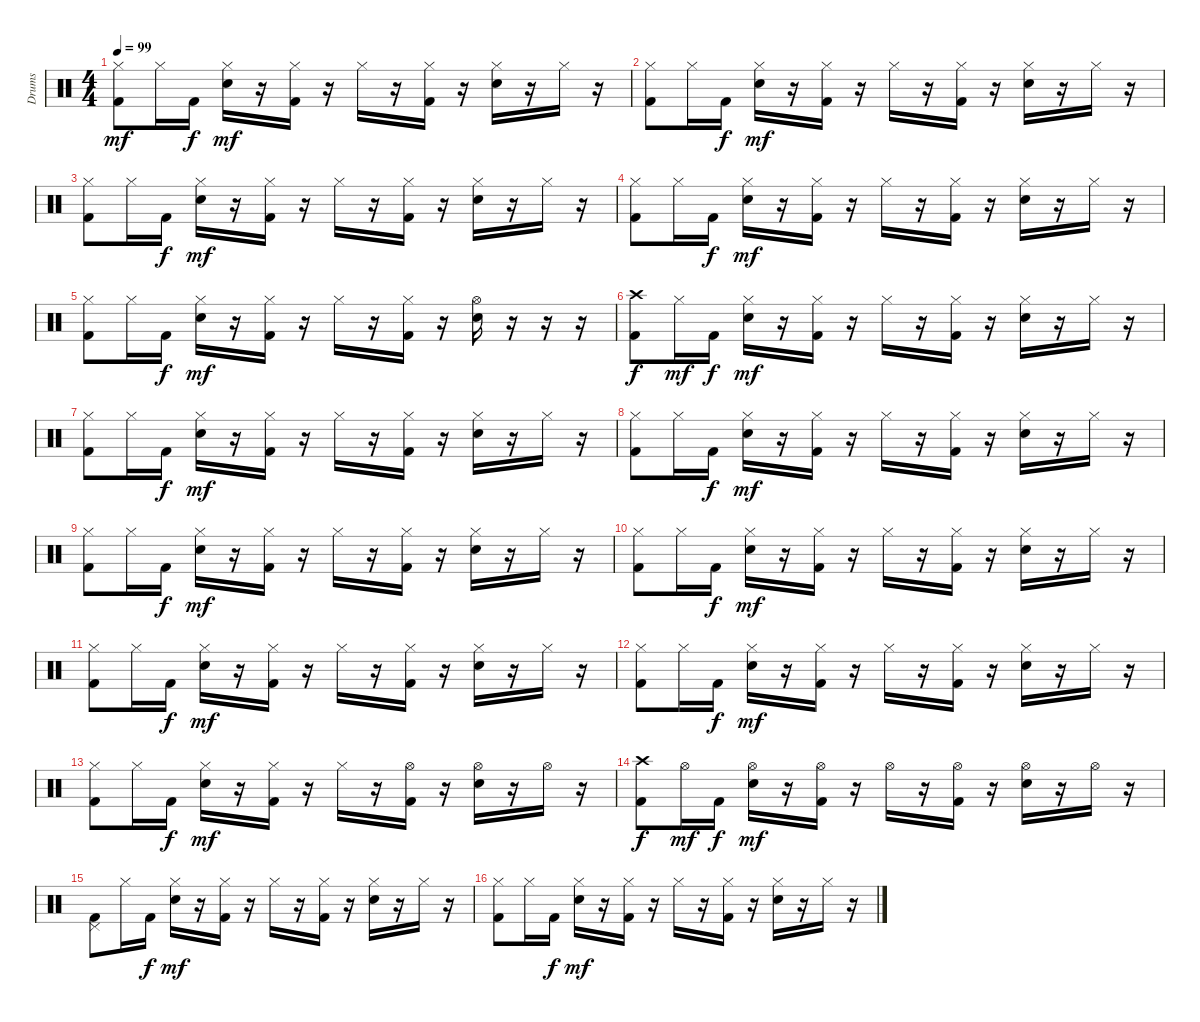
\track ("Drums" "Drums") {instrument percussion}
\staff {score}
\articulation defaults
\ts (4 4)
\tempo 99
\clef neutral
\ks c
("Hi-Hat (closed)" "Kick (hit) 2").8{dy mf} "Hi-Hat (closed)".16 "Kick (hit) 2".16{dy f} ("Hi-Hat (closed)" "Snare (hit) 2").16{dy mf} r.16 ("Hi-Hat (closed)" "Kick (hit) 2").16 r.16 "Hi-Hat (closed)".16 r.16 ("Hi-Hat (closed)" "Kick (hit) 2").16 r.16 ("Hi-Hat (closed)" "Snare (hit) 2").16 r.16 "Hi-Hat (closed)".16 r.16 |
("Hi-Hat (closed)" "Kick (hit) 2").8 "Hi-Hat (closed)".16 "Kick (hit) 2".16{dy f} ("Hi-Hat (closed)" "Snare (hit) 2").16{dy mf} r.16 ("Hi-Hat (closed)" "Kick (hit) 2").16 r.16 "Hi-Hat (closed)".16 r.16 ("Hi-Hat (closed)" "Kick (hit) 2").16 r.16 ("Hi-Hat (closed)" "Snare (hit) 2").16 r.16 "Hi-Hat (closed)".16 r.16 |
("Hi-Hat (closed)" "Kick (hit) 2").8 "Hi-Hat (closed)".16 "Kick (hit) 2".16{dy f} ("Hi-Hat (closed)" "Snare (hit) 2").16{dy mf} r.16 ("Hi-Hat (closed)" "Kick (hit) 2").16 r.16 "Hi-Hat (closed)".16 r.16 ("Hi-Hat (closed)" "Kick (hit) 2").16 r.16 ("Hi-Hat (closed)" "Snare (hit) 2").16 r.16 "Hi-Hat (closed)".16 r.16 |
("Hi-Hat (closed)" "Kick (hit) 2").8 "Hi-Hat (closed)".16 "Kick (hit) 2".16{dy f} ("Hi-Hat (closed)" "Snare (hit) 2").16{dy mf} r.16 ("Hi-Hat (closed)" "Kick (hit) 2").16 r.16 "Hi-Hat (closed)".16 r.16 ("Hi-Hat (closed)" "Kick (hit) 2").16 r.16 ("Hi-Hat (closed)" "Snare (hit) 2").16 r.16 "Hi-Hat (closed)".16 r.16 |
("Hi-Hat (closed)" "Kick (hit) 2").8 "Hi-Hat (closed)".16 "Kick (hit) 2".16{dy f} ("Hi-Hat (closed)" "Snare (hit) 2").16{dy mf} r.16 ("Hi-Hat (closed)" "Kick (hit) 2").16 r.16 "Hi-Hat (closed)".16 r.16 ("Hi-Hat (closed)" "Kick (hit) 2").16 r.16 ("Hi-Hat (open)" "Snare (hit) 2").16 r.16 r.16 r.16 |
("Crash high (hit)" "Kick (hit) 2").8{dy f} "Hi-Hat (closed)".16{dy mf} "Kick (hit) 2".16{dy f} ("Hi-Hat (closed)" "Snare (hit) 2").16{dy mf} r.16 ("Hi-Hat (closed)" "Kick (hit) 2").16 r.16 "Hi-Hat (closed)".16 r.16 ("Hi-Hat (closed)" "Kick (hit) 2").16 r.16 ("Hi-Hat (closed)" "Snare (hit) 2").16 r.16 "Hi-Hat (closed)".16 r.16 |
("Hi-Hat (closed)" "Kick (hit) 2").8 "Hi-Hat (closed)".16 "Kick (hit) 2".16{dy f} ("Hi-Hat (closed)" "Snare (hit) 2").16{dy mf} r.16 ("Hi-Hat (closed)" "Kick (hit) 2").16 r.16 "Hi-Hat (closed)".16 r.16 ("Hi-Hat (closed)" "Kick (hit) 2").16 r.16 ("Hi-Hat (closed)" "Snare (hit) 2").16 r.16 "Hi-Hat (closed)".16 r.16 |
("Hi-Hat (closed)" "Kick (hit) 2").8 "Hi-Hat (closed)".16 "Kick (hit) 2".16{dy f} ("Hi-Hat (closed)" "Snare (hit) 2").16{dy mf} r.16 ("Hi-Hat (closed)" "Kick (hit) 2").16 r.16 "Hi-Hat (closed)".16 r.16 ("Hi-Hat (closed)" "Kick (hit) 2").16 r.16 ("Hi-Hat (closed)" "Snare (hit) 2").16 r.16 "Hi-Hat (closed)".16 r.16 |
("Hi-Hat (closed)" "Kick (hit) 2").8 "Hi-Hat (closed)".16 "Kick (hit) 2".16{dy f} ("Hi-Hat (closed)" "Snare (hit) 2").16{dy mf} r.16 ("Hi-Hat (closed)" "Kick (hit) 2").16 r.16 "Hi-Hat (closed)".16 r.16 ("Hi-Hat (closed)" "Kick (hit) 2").16 r.16 ("Hi-Hat (closed)" "Snare (hit) 2").16 r.16 "Hi-Hat (closed)".16 r.16 |
("Hi-Hat (closed)" "Kick (hit) 2").8 "Hi-Hat (closed)".16 "Kick (hit) 2".16{dy f} ("Hi-Hat (closed)" "Snare (hit) 2").16{dy mf} r.16 ("Hi-Hat (closed)" "Kick (hit) 2").16 r.16 "Hi-Hat (closed)".16 r.16 ("Hi-Hat (closed)" "Kick (hit) 2").16 r.16 ("Hi-Hat (closed)" "Snare (hit) 2").16 r.16 "Hi-Hat (closed)".16 r.16 |
("Hi-Hat (closed)" "Kick (hit) 2").8 "Hi-Hat (closed)".16 "Kick (hit) 2".16{dy f} ("Hi-Hat (closed)" "Snare (hit) 2").16{dy mf} r.16 ("Hi-Hat (closed)" "Kick (hit) 2").16 r.16 "Hi-Hat (closed)".16 r.16 ("Hi-Hat (closed)" "Kick (hit) 2").16 r.16 ("Hi-Hat (closed)" "Snare (hit) 2").16 r.16 "Hi-Hat (closed)".16 r.16 |
("Hi-Hat (closed)" "Kick (hit) 2").8 "Hi-Hat (closed)".16 "Kick (hit) 2".16{dy f} ("Hi-Hat (closed)" "Snare (hit) 2").16{dy mf} r.16 ("Hi-Hat (closed)" "Kick (hit) 2").16 r.16 "Hi-Hat (closed)".16 r.16 ("Hi-Hat (closed)" "Kick (hit) 2").16 r.16 ("Hi-Hat (closed)" "Snare (hit) 2").16 r.16 "Hi-Hat (closed)".16 r.16 |
("Hi-Hat (closed)" "Kick (hit) 2").8 "Hi-Hat (closed)".16 "Kick (hit) 2".16{dy f} ("Hi-Hat (closed)" "Snare (hit) 2").16{dy mf} r.16 ("Hi-Hat (closed)" "Kick (hit) 2").16 r.16 "Hi-Hat (closed)".16 r.16 ("Hi-Hat (open)" "Kick (hit) 2").16 r.16 ("Hi-Hat (open)" "Snare (hit) 2").16 r.16 "Hi-Hat (open)".16 r.16 |
("Crash high (hit)" "Kick (hit) 2").8{dy f} "Hi-Hat (open)".16{dy mf} "Kick (hit) 2".16{dy f} ("Hi-Hat (open)" "Snare (hit) 2").16{dy mf} r.16 ("Hi-Hat (open)" "Kick (hit) 2").16 r.16 "Hi-Hat (open)".16 r.16 ("Hi-Hat (open)" "Kick (hit) 2").16 r.16 ("Hi-Hat (open)" "Snare (hit) 2").16 r.16 "Hi-Hat (open)".16 r.16 |
("Pedal Hi-Hat (hit)" "Kick (hit) 2").8 "Hi-Hat (closed)".16 "Kick (hit) 2".16{dy f} ("Hi-Hat (closed)" "Snare (hit) 2").16{dy mf} r.16 ("Hi-Hat (closed)" "Kick (hit) 2").16 r.16 "Hi-Hat (closed)".16 r.16 ("Hi-Hat (closed)" "Kick (hit) 2").16 r.16 ("Hi-Hat (closed)" "Snare (hit) 2").16 r.16 "Hi-Hat (closed)".16 r.16 |
("Hi-Hat (closed)" "Kick (hit) 2").8 "Hi-Hat (closed)".16 "Kick (hit) 2".16{dy f} ("Hi-Hat (closed)" "Snare (hit) 2").16{dy mf} r.16 ("Hi-Hat (closed)" "Kick (hit) 2").16 r.16 "Hi-Hat (closed)".16 r.16 ("Hi-Hat (closed)" "Kick (hit) 2").16 r.16 ("Hi-Hat (closed)" "Snare (hit) 2").16 r.16 "Hi-Hat (closed)".16 r.16
